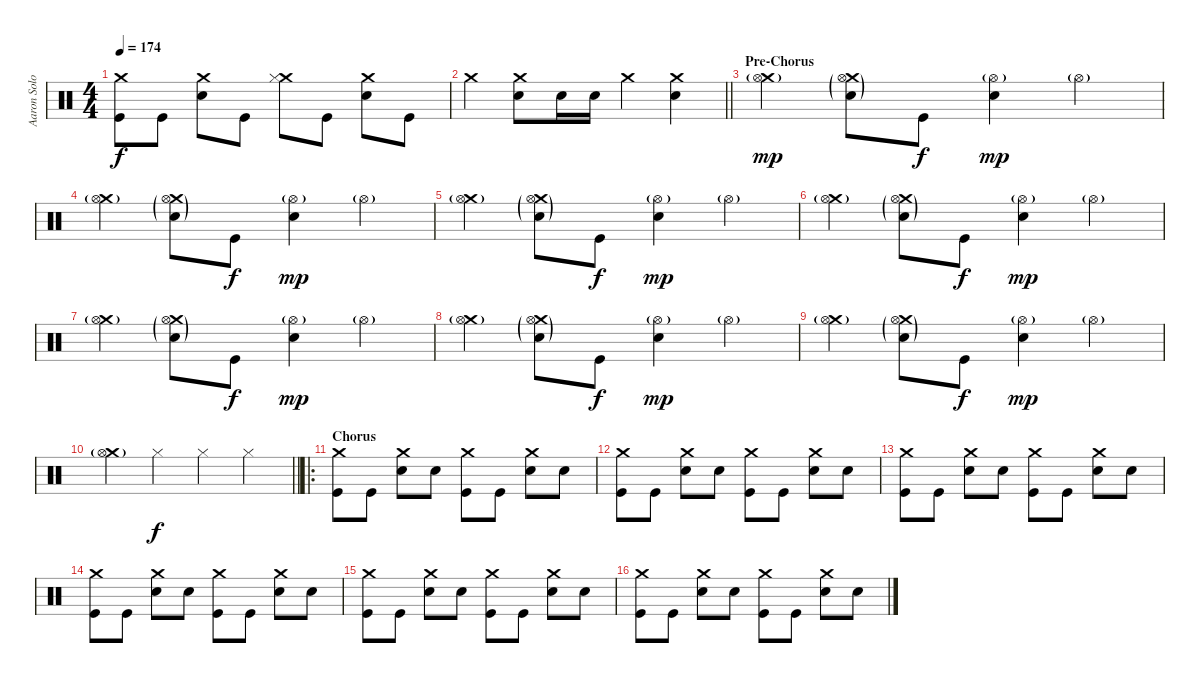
\track ("Aaron Solowoniuk" "Aaron Solo") {instrument percussion}
\staff {score}
\articulation defaults
\ts (4 4)
\tempo 174
\clef neutral
\ks c
("Kick (hit)" "Crash medium (hit)").8{dy f} "Kick (hit)".8 ("Crash medium (hit)" "Electric Snare (hit)").8 "Kick (hit)".8 ("Crash medium (hit)" "Hi-Hat (closed)").8 "Kick (hit)".8 ("Crash medium (hit)" "Electric Snare (hit)").8 "Kick (hit)".8 |
\barLineRight lightlight "Crash medium (hit)".4
("Crash medium (hit)" "Electric Snare (hit)").8 "Electric Snare (hit)".16 "Electric Snare (hit)".16 "Crash medium (hit)".4 ("Crash medium (hit)" "Electric Snare (hit)").4 |
\section ("" "Pre-Chorus")
("Crash medium (hit)" "Hi-Hat (open)"{g}).4{dy mp} ("Crash medium (hit)"{g} "Electric Snare (hit)"{g} "Hi-Hat (open)"{g}).8 "Kick (hit)".8{dy f} ("Electric Snare (hit)" "Hi-Hat (open)"{g}).4{dy mp} "Hi-Hat (open)"{g}.4 |
("Crash medium (hit)" "Hi-Hat (open)"{g}).4 ("Crash medium (hit)"{g} "Electric Snare (hit)"{g} "Hi-Hat (open)"{g}).8 "Kick (hit)".8{dy f} ("Electric Snare (hit)" "Hi-Hat (open)"{g}).4{dy mp} "Hi-Hat (open)"{g}.4 |
("Crash medium (hit)" "Hi-Hat (open)"{g}).4 ("Crash medium (hit)"{g} "Electric Snare (hit)"{g} "Hi-Hat (open)"{g}).8 "Kick (hit)".8{dy f} ("Electric Snare (hit)" "Hi-Hat (open)"{g}).4{dy mp} "Hi-Hat (open)"{g}.4 |
("Crash medium (hit)" "Hi-Hat (open)"{g}).4 ("Crash medium (hit)"{g} "Electric Snare (hit)"{g} "Hi-Hat (open)"{g}).8 "Kick (hit)".8{dy f} ("Electric Snare (hit)" "Hi-Hat (open)"{g}).4{dy mp} "Hi-Hat (open)"{g}.4 |
("Crash medium (hit)" "Hi-Hat (open)"{g}).4 ("Crash medium (hit)"{g} "Electric Snare (hit)"{g} "Hi-Hat (open)"{g}).8 "Kick (hit)".8{dy f} ("Electric Snare (hit)" "Hi-Hat (open)"{g}).4{dy mp} "Hi-Hat (open)"{g}.4 |
("Crash medium (hit)" "Hi-Hat (open)"{g}).4 ("Crash medium (hit)"{g} "Electric Snare (hit)"{g} "Hi-Hat (open)"{g}).8 "Kick (hit)".8{dy f} ("Electric Snare (hit)" "Hi-Hat (open)"{g}).4{dy mp} "Hi-Hat (open)"{g}.4 |
("Crash medium (hit)" "Hi-Hat (open)"{g}).4 ("Crash medium (hit)"{g} "Electric Snare (hit)"{g} "Hi-Hat (open)"{g}).8 "Kick (hit)".8{dy f} ("Electric Snare (hit)" "Hi-Hat (open)"{g}).4{dy mp} "Hi-Hat (open)"{g}.4 |
\barLineRight lightlight
("Crash medium (hit)" "Hi-Hat (open)"{g}).4 "Hi-Hat (closed)".4{dy f} "Hi-Hat (closed)".4 "Hi-Hat (closed)".4 |
\ro
\section ("" "Chorus")
("Kick (hit)" "Crash medium (hit)").8 "Kick (hit)".8 ("Snare (hit) 2" "Crash medium (hit)").8 "Snare (hit) 2".8 ("Kick (hit)" "Crash medium (hit)").8 "Kick (hit)".8 ("Snare (hit) 2" "Crash medium (hit)").8 "Snare (hit) 2".8 |
("Kick (hit)" "Crash medium (hit)").8 "Kick (hit)".8 ("Snare (hit) 2" "Crash medium (hit)").8 "Snare (hit) 2".8 ("Kick (hit)" "Crash medium (hit)").8 "Kick (hit)".8 ("Snare (hit) 2" "Crash medium (hit)").8 "Snare (hit) 2".8 |
("Kick (hit)" "Crash medium (hit)").8 "Kick (hit)".8 ("Snare (hit) 2" "Crash medium (hit)").8 "Snare (hit) 2".8 ("Kick (hit)" "Crash medium (hit)").8 "Kick (hit)".8 ("Snare (hit) 2" "Crash medium (hit)").8 "Snare (hit) 2".8 |
("Kick (hit)" "Crash medium (hit)").8 "Kick (hit)".8 ("Snare (hit) 2" "Crash medium (hit)").8 "Snare (hit) 2".8 ("Kick (hit)" "Crash medium (hit)").8 "Kick (hit)".8 ("Snare (hit) 2" "Crash medium (hit)").8 "Snare (hit) 2".8 |
("Kick (hit)" "Crash medium (hit)").8 "Kick (hit)".8 ("Snare (hit) 2" "Crash medium (hit)").8 "Snare (hit) 2".8 ("Kick (hit)" "Crash medium (hit)").8 "Kick (hit)".8 ("Snare (hit) 2" "Crash medium (hit)").8 "Snare (hit) 2".8 |
("Kick (hit)" "Crash medium (hit)").8 "Kick (hit)".8 ("Snare (hit) 2" "Crash medium (hit)").8 "Snare (hit) 2".8 ("Kick (hit)" "Crash medium (hit)").8 "Kick (hit)".8 ("Snare (hit) 2" "Crash medium (hit)").8 "Snare (hit) 2".8
